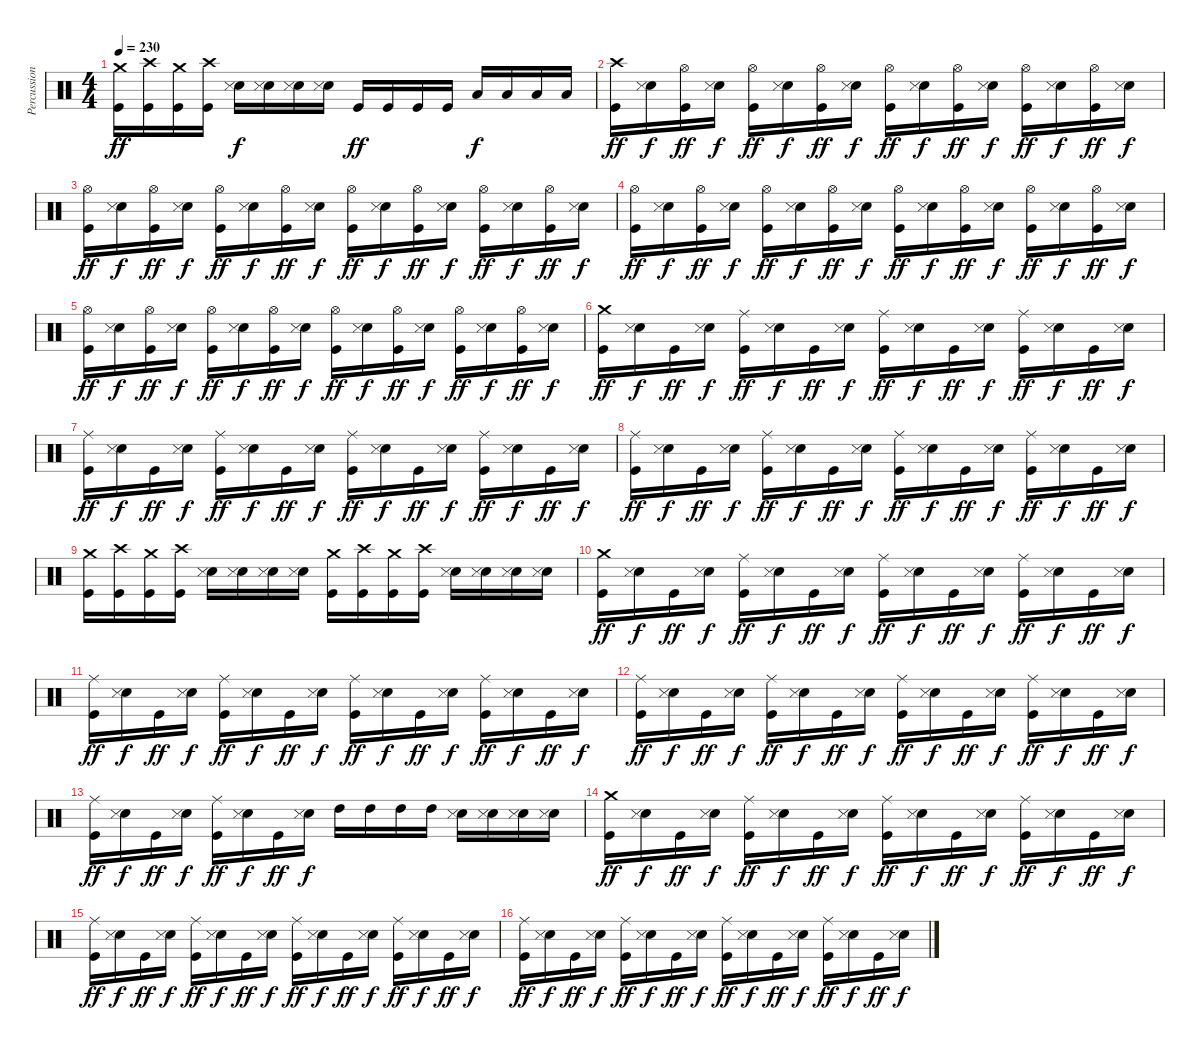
\track ("Percussions" "Percussion") {instrument percussion}
\staff {score}
\articulation defaults
\ts (4 4)
\tempo 230
\clef neutral
\ks c
("Crash medium (hit)" "Kick (hit)").16{dy ff} ("Crash high (hit)" "Kick (hit)").16 ("Crash medium (hit)" "Kick (hit)").16 ("Crash high (hit)" "Kick (hit)").16 ("Electric Snare (hit)" "Snare (side stick) 3").16{dy f} ("Electric Snare (hit)" "Snare (side stick) 3").16 ("Electric Snare (hit)" "Snare (side stick) 3").16 ("Electric Snare (hit)" "Snare (side stick) 3").16 "Kick (hit)".16{dy ff} "Kick (hit)".16 "Kick (hit)".16 "Kick (hit)".16 "Low Tom (hit)".16{dy f} "Low Tom (hit)".16 "Low Tom (hit)".16 "Low Tom (hit)".16 |
("Crash high (hit)" "Kick (hit)").16{dy ff} ("Electric Snare (hit)" "Snare (side stick) 3").16{dy f} ("Hi-Hat (open)" "Kick (hit)").16{dy ff} ("Electric Snare (hit)" "Snare (side stick) 3").16{dy f} ("Hi-Hat (open)" "Kick (hit)").16{dy ff} ("Electric Snare (hit)" "Snare (side stick) 3").16{dy f} ("Hi-Hat (open)" "Kick (hit)").16{dy ff} ("Electric Snare (hit)" "Snare (side stick) 3").16{dy f} ("Hi-Hat (open)" "Kick (hit)").16{dy ff} ("Electric Snare (hit)" "Snare (side stick) 3").16{dy f} ("Hi-Hat (open)" "Kick (hit)").16{dy ff} ("Electric Snare (hit)" "Snare (side stick) 3").16{dy f} ("Hi-Hat (open)" "Kick (hit)").16{dy ff} ("Electric Snare (hit)" "Snare (side stick) 3").16{dy f} ("Hi-Hat (open)" "Kick (hit)").16{dy ff} ("Electric Snare (hit)" "Snare (side stick) 3").16{dy f} |
("Hi-Hat (open)" "Kick (hit)").16{dy ff} ("Electric Snare (hit)" "Snare (side stick) 3").16{dy f} ("Hi-Hat (open)" "Kick (hit)").16{dy ff} ("Electric Snare (hit)" "Snare (side stick) 3").16{dy f} ("Hi-Hat (open)" "Kick (hit)").16{dy ff} ("Electric Snare (hit)" "Snare (side stick) 3").16{dy f} ("Hi-Hat (open)" "Kick (hit)").16{dy ff} ("Electric Snare (hit)" "Snare (side stick) 3").16{dy f} ("Hi-Hat (open)" "Kick (hit)").16{dy ff} ("Electric Snare (hit)" "Snare (side stick) 3").16{dy f} ("Hi-Hat (open)" "Kick (hit)").16{dy ff} ("Electric Snare (hit)" "Snare (side stick) 3").16{dy f} ("Hi-Hat (open)" "Kick (hit)").16{dy ff} ("Electric Snare (hit)" "Snare (side stick) 3").16{dy f} ("Hi-Hat (open)" "Kick (hit)").16{dy ff} ("Electric Snare (hit)" "Snare (side stick) 3").16{dy f} |
("Hi-Hat (open)" "Kick (hit)").16{dy ff} ("Electric Snare (hit)" "Snare (side stick) 3").16{dy f} ("Hi-Hat (open)" "Kick (hit)").16{dy ff} ("Electric Snare (hit)" "Snare (side stick) 3").16{dy f} ("Hi-Hat (open)" "Kick (hit)").16{dy ff} ("Electric Snare (hit)" "Snare (side stick) 3").16{dy f} ("Hi-Hat (open)" "Kick (hit)").16{dy ff} ("Electric Snare (hit)" "Snare (side stick) 3").16{dy f} ("Hi-Hat (open)" "Kick (hit)").16{dy ff} ("Electric Snare (hit)" "Snare (side stick) 3").16{dy f} ("Hi-Hat (open)" "Kick (hit)").16{dy ff} ("Electric Snare (hit)" "Snare (side stick) 3").16{dy f} ("Hi-Hat (open)" "Kick (hit)").16{dy ff} ("Electric Snare (hit)" "Snare (side stick) 3").16{dy f} ("Hi-Hat (open)" "Kick (hit)").16{dy ff} ("Electric Snare (hit)" "Snare (side stick) 3").16{dy f} |
("Hi-Hat (open)" "Kick (hit)").16{dy ff} ("Electric Snare (hit)" "Snare (side stick) 3").16{dy f} ("Hi-Hat (open)" "Kick (hit)").16{dy ff} ("Electric Snare (hit)" "Snare (side stick) 3").16{dy f} ("Hi-Hat (open)" "Kick (hit)").16{dy ff} ("Electric Snare (hit)" "Snare (side stick) 3").16{dy f} ("Hi-Hat (open)" "Kick (hit)").16{dy ff} ("Electric Snare (hit)" "Snare (side stick) 3").16{dy f} ("Hi-Hat (open)" "Kick (hit)").16{dy ff} ("Electric Snare (hit)" "Snare (side stick) 3").16{dy f} ("Hi-Hat (open)" "Kick (hit)").16{dy ff} ("Electric Snare (hit)" "Snare (side stick) 3").16{dy f} ("Hi-Hat (open)" "Kick (hit)").16{dy ff} ("Electric Snare (hit)" "Snare (side stick) 3").16{dy f} ("Hi-Hat (open)" "Kick (hit)").16{dy ff} ("Electric Snare (hit)" "Snare (side stick) 3").16{dy f} |
("Crash medium (hit)" "Kick (hit)").16{dy ff} ("Electric Snare (hit)" "Snare (side stick) 3").16{dy f} "Kick (hit)".16{dy ff} ("Electric Snare (hit)" "Snare (side stick) 3").16{dy f} ("Ride (middle)" "Kick (hit)").16{dy ff} ("Electric Snare (hit)" "Snare (side stick) 3").16{dy f} "Kick (hit)".16{dy ff} ("Electric Snare (hit)" "Snare (side stick) 3").16{dy f} ("Ride (middle)" "Kick (hit)").16{dy ff} ("Electric Snare (hit)" "Snare (side stick) 3").16{dy f} "Kick (hit)".16{dy ff} ("Electric Snare (hit)" "Snare (side stick) 3").16{dy f} ("Ride (middle)" "Kick (hit)").16{dy ff} ("Electric Snare (hit)" "Snare (side stick) 3").16{dy f} "Kick (hit)".16{dy ff} ("Electric Snare (hit)" "Snare (side stick) 3").16{dy f} |
("Ride (middle)" "Kick (hit)").16{dy ff} ("Electric Snare (hit)" "Snare (side stick) 3").16{dy f} "Kick (hit)".16{dy ff} ("Electric Snare (hit)" "Snare (side stick) 3").16{dy f} ("Ride (middle)" "Kick (hit)").16{dy ff} ("Electric Snare (hit)" "Snare (side stick) 3").16{dy f} "Kick (hit)".16{dy ff} ("Electric Snare (hit)" "Snare (side stick) 3").16{dy f} ("Ride (middle)" "Kick (hit)").16{dy ff} ("Electric Snare (hit)" "Snare (side stick) 3").16{dy f} "Kick (hit)".16{dy ff} ("Electric Snare (hit)" "Snare (side stick) 3").16{dy f} ("Ride (middle)" "Kick (hit)").16{dy ff} ("Electric Snare (hit)" "Snare (side stick) 3").16{dy f} "Kick (hit)".16{dy ff} ("Electric Snare (hit)" "Snare (side stick) 3").16{dy f} |
("Ride (middle)" "Kick (hit)").16{dy ff} ("Electric Snare (hit)" "Snare (side stick) 3").16{dy f} "Kick (hit)".16{dy ff} ("Electric Snare (hit)" "Snare (side stick) 3").16{dy f} ("Ride (middle)" "Kick (hit)").16{dy ff} ("Electric Snare (hit)" "Snare (side stick) 3").16{dy f} "Kick (hit)".16{dy ff} ("Electric Snare (hit)" "Snare (side stick) 3").16{dy f} ("Ride (middle)" "Kick (hit)").16{dy ff} ("Electric Snare (hit)" "Snare (side stick) 3").16{dy f} "Kick (hit)".16{dy ff} ("Electric Snare (hit)" "Snare (side stick) 3").16{dy f} ("Ride (middle)" "Kick (hit)").16{dy ff} ("Electric Snare (hit)" "Snare (side stick) 3").16{dy f} "Kick (hit)".16{dy ff} ("Electric Snare (hit)" "Snare (side stick) 3").16{dy f} |
("Crash medium (hit)" "Kick (hit)").16 ("Crash high (hit)" "Kick (hit)").16 ("Crash medium (hit)" "Kick (hit)").16 ("Crash high (hit)" "Kick (hit)").16 ("Electric Snare (hit)" "Snare (side stick) 3").16 ("Electric Snare (hit)" "Snare (side stick) 3").16 ("Electric Snare (hit)" "Snare (side stick) 3").16 ("Electric Snare (hit)" "Snare (side stick) 3").16 ("Crash medium (hit)" "Kick (hit)").16 ("Crash high (hit)" "Kick (hit)").16 ("Crash medium (hit)" "Kick (hit)").16 ("Crash high (hit)" "Kick (hit)").16 ("Electric Snare (hit)" "Snare (side stick) 3").16 ("Electric Snare (hit)" "Snare (side stick) 3").16 ("Electric Snare (hit)" "Snare (side stick) 3").16 ("Electric Snare (hit)" "Snare (side stick) 3").16 |
("Crash medium (hit)" "Kick (hit)").16{dy ff} ("Electric Snare (hit)" "Snare (side stick) 3").16{dy f} "Kick (hit)".16{dy ff} ("Electric Snare (hit)" "Snare (side stick) 3").16{dy f} ("Ride (middle)" "Kick (hit)").16{dy ff} ("Electric Snare (hit)" "Snare (side stick) 3").16{dy f} "Kick (hit)".16{dy ff} ("Electric Snare (hit)" "Snare (side stick) 3").16{dy f} ("Ride (middle)" "Kick (hit)").16{dy ff} ("Electric Snare (hit)" "Snare (side stick) 3").16{dy f} "Kick (hit)".16{dy ff} ("Electric Snare (hit)" "Snare (side stick) 3").16{dy f} ("Ride (middle)" "Kick (hit)").16{dy ff} ("Electric Snare (hit)" "Snare (side stick) 3").16{dy f} "Kick (hit)".16{dy ff} ("Electric Snare (hit)" "Snare (side stick) 3").16{dy f} |
("Ride (middle)" "Kick (hit)").16{dy ff} ("Electric Snare (hit)" "Snare (side stick) 3").16{dy f} "Kick (hit)".16{dy ff} ("Electric Snare (hit)" "Snare (side stick) 3").16{dy f} ("Ride (middle)" "Kick (hit)").16{dy ff} ("Electric Snare (hit)" "Snare (side stick) 3").16{dy f} "Kick (hit)".16{dy ff} ("Electric Snare (hit)" "Snare (side stick) 3").16{dy f} ("Ride (middle)" "Kick (hit)").16{dy ff} ("Electric Snare (hit)" "Snare (side stick) 3").16{dy f} "Kick (hit)".16{dy ff} ("Electric Snare (hit)" "Snare (side stick) 3").16{dy f} ("Ride (middle)" "Kick (hit)").16{dy ff} ("Electric Snare (hit)" "Snare (side stick) 3").16{dy f} "Kick (hit)".16{dy ff} ("Electric Snare (hit)" "Snare (side stick) 3").16{dy f} |
("Ride (middle)" "Kick (hit)").16{dy ff} ("Electric Snare (hit)" "Snare (side stick) 3").16{dy f} "Kick (hit)".16{dy ff} ("Electric Snare (hit)" "Snare (side stick) 3").16{dy f} ("Ride (middle)" "Kick (hit)").16{dy ff} ("Electric Snare (hit)" "Snare (side stick) 3").16{dy f} "Kick (hit)".16{dy ff} ("Electric Snare (hit)" "Snare (side stick) 3").16{dy f} ("Ride (middle)" "Kick (hit)").16{dy ff} ("Electric Snare (hit)" "Snare (side stick) 3").16{dy f} "Kick (hit)".16{dy ff} ("Electric Snare (hit)" "Snare (side stick) 3").16{dy f} ("Ride (middle)" "Kick (hit)").16{dy ff} ("Electric Snare (hit)" "Snare (side stick) 3").16{dy f} "Kick (hit)".16{dy ff} ("Electric Snare (hit)" "Snare (side stick) 3").16{dy f} |
("Ride (middle)" "Kick (hit)").16{dy ff} ("Electric Snare (hit)" "Snare (side stick) 3").16{dy f} "Kick (hit)".16{dy ff} ("Electric Snare (hit)" "Snare (side stick) 3").16{dy f} ("Ride (middle)" "Kick (hit)").16{dy ff} ("Electric Snare (hit)" "Snare (side stick) 3").16{dy f} "Kick (hit)".16{dy ff} ("Electric Snare (hit)" "Snare (side stick) 3").16{dy f} "High Tom (hit)".16 "High Tom (hit)".16 "High Tom (hit)".16 "High Tom (hit)".16 ("Electric Snare (hit)" "Snare (side stick) 3").16 ("Electric Snare (hit)" "Snare (side stick) 3").16 ("Electric Snare (hit)" "Snare (side stick) 3").16 ("Electric Snare (hit)" "Snare (side stick) 3").16 |
("Crash medium (hit)" "Kick (hit)").16{dy ff} ("Electric Snare (hit)" "Snare (side stick) 3").16{dy f} "Kick (hit)".16{dy ff} ("Electric Snare (hit)" "Snare (side stick) 3").16{dy f} ("Ride (middle)" "Kick (hit)").16{dy ff} ("Electric Snare (hit)" "Snare (side stick) 3").16{dy f} "Kick (hit)".16{dy ff} ("Electric Snare (hit)" "Snare (side stick) 3").16{dy f} ("Ride (middle)" "Kick (hit)").16{dy ff} ("Electric Snare (hit)" "Snare (side stick) 3").16{dy f} "Kick (hit)".16{dy ff} ("Electric Snare (hit)" "Snare (side stick) 3").16{dy f} ("Ride (middle)" "Kick (hit)").16{dy ff} ("Electric Snare (hit)" "Snare (side stick) 3").16{dy f} "Kick (hit)".16{dy ff} ("Electric Snare (hit)" "Snare (side stick) 3").16{dy f} |
("Ride (middle)" "Kick (hit)").16{dy ff} ("Electric Snare (hit)" "Snare (side stick) 3").16{dy f} "Kick (hit)".16{dy ff} ("Electric Snare (hit)" "Snare (side stick) 3").16{dy f} ("Ride (middle)" "Kick (hit)").16{dy ff} ("Electric Snare (hit)" "Snare (side stick) 3").16{dy f} "Kick (hit)".16{dy ff} ("Electric Snare (hit)" "Snare (side stick) 3").16{dy f} ("Ride (middle)" "Kick (hit)").16{dy ff} ("Electric Snare (hit)" "Snare (side stick) 3").16{dy f} "Kick (hit)".16{dy ff} ("Electric Snare (hit)" "Snare (side stick) 3").16{dy f} ("Ride (middle)" "Kick (hit)").16{dy ff} ("Electric Snare (hit)" "Snare (side stick) 3").16{dy f} "Kick (hit)".16{dy ff} ("Electric Snare (hit)" "Snare (side stick) 3").16{dy f} |
("Ride (middle)" "Kick (hit)").16{dy ff} ("Electric Snare (hit)" "Snare (side stick) 3").16{dy f} "Kick (hit)".16{dy ff} ("Electric Snare (hit)" "Snare (side stick) 3").16{dy f} ("Ride (middle)" "Kick (hit)").16{dy ff} ("Electric Snare (hit)" "Snare (side stick) 3").16{dy f} "Kick (hit)".16{dy ff} ("Electric Snare (hit)" "Snare (side stick) 3").16{dy f} ("Ride (middle)" "Kick (hit)").16{dy ff} ("Electric Snare (hit)" "Snare (side stick) 3").16{dy f} "Kick (hit)".16{dy ff} ("Electric Snare (hit)" "Snare (side stick) 3").16{dy f} ("Ride (middle)" "Kick (hit)").16{dy ff} ("Electric Snare (hit)" "Snare (side stick) 3").16{dy f} "Kick (hit)".16{dy ff} ("Electric Snare (hit)" "Snare (side stick) 3").16{dy f}
